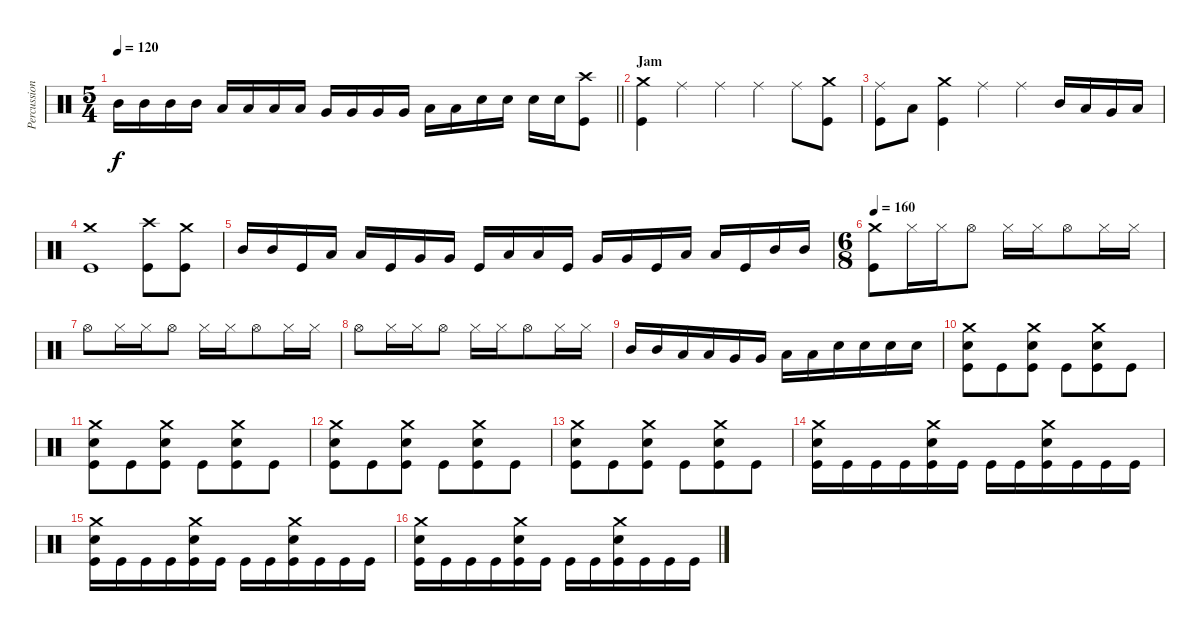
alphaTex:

\track ("Percussion" "Percussion") {instrument percussion}
\staff {score}
\articulation defaults
\ts (5 4)
\tempo 120
\clef neutral
\barLineRight lightlight
\ks c "Mid Tom (hit)".16{dy f} "Mid Tom (hit)".16 "Mid Tom (hit)".16 "Mid Tom (hit)".16 "Low Tom (hit)".16 "Low Tom (hit)".16 "Low Tom (hit)".16 "Low Tom (hit)".16 "Very Low Tom (hit)".16 "Very Low Tom (hit)".16 "Very Low Tom (hit)".16 "Very Low Tom (hit)".16 "Low Floor Tom (hit)".16 "Low Floor Tom (hit)".16 "Snare (hit) 2".16 "Snare (hit) 2".16 "Snare (hit) 2".16 "Snare (hit) 2".16
("Crash high (hit)" "Kick (hit)").8 |
\section ("" "Jam")
("Crash medium (hit)" "Kick (hit)").4 "Ride (middle)".4 "Ride (middle)".4 "Ride (middle)".4 "Ride (middle)".8 ("Crash medium (hit)" "Kick (hit)").8 |
("Ride (middle)" "Kick (hit)").8 "Low Floor Tom (hit)".8 ("Crash medium (hit)" "Kick (hit)").4 "Ride (middle)".4 "Ride (middle)".4 "Mid Tom (hit)".16 "Low Tom (hit)".16 "Very Low Tom (hit)".16 "Low Floor Tom (hit)".16 |
("Crash medium (hit)" "Kick (hit)").1 ("Crash high (hit)" "Kick (hit)").8 ("Crash medium (hit)" "Kick (hit)").8 |
"Mid Tom (hit)".16 "Mid Tom (hit)".16 "Kick (hit)".16 "Low Tom (hit)".16 "Low Tom (hit)".16 "Kick (hit)".16 "Very Low Tom (hit)".16 "Very Low Tom (hit)".16 "Kick (hit)".16 "Low Floor Tom (hit)".16 "Low Floor Tom (hit)".16 "Kick (hit)".16 "Very Low Tom (hit)".16 "Very Low Tom (hit)".16 "Kick (hit)".16 "Low Tom (hit)".16 "Low Tom (hit)".16 "Kick (hit)".16 "Mid Tom (hit)".16 "Mid Tom (hit)".16 |
\ts (6 8)
\tempo 160
("Crash medium (hit)" "Kick (hit)").8 "Hi-Hat (closed)".16 "Hi-Hat (closed)".16 "Hi-Hat (open)".8 "Hi-Hat (closed)".16 "Hi-Hat (closed)".16 "Hi-Hat (open)".8 "Hi-Hat (closed)".16 "Hi-Hat (closed)".16 |
"Hi-Hat (open)".8 "Hi-Hat (closed)".16 "Hi-Hat (closed)".16 "Hi-Hat (open)".8 "Hi-Hat (closed)".16 "Hi-Hat (closed)".16 "Hi-Hat (open)".8 "Hi-Hat (closed)".16 "Hi-Hat (closed)".16 |
"Hi-Hat (open)".8 "Hi-Hat (closed)".16 "Hi-Hat (closed)".16 "Hi-Hat (open)".8 "Hi-Hat (closed)".16 "Hi-Hat (closed)".16 "Hi-Hat (open)".8 "Hi-Hat (closed)".16 "Hi-Hat (closed)".16 |
"Mid Tom (hit)".16 "Mid Tom (hit)".16 "Low Tom (hit)".16 "Low Tom (hit)".16 "Very Low Tom (hit)".16 "Very Low Tom (hit)".16 "Low Floor Tom (hit)".16 "Low Floor Tom (hit)".16 "Snare (hit) 2".16 "Snare (hit) 2".16 "Snare (hit) 2".16 "Snare (hit) 2".16 |
("Crash medium (hit)" "Snare (hit) 2" "Kick (hit)").8 "Kick (hit)".8 ("Crash medium (hit)" "Snare (hit) 2" "Kick (hit)").8 "Kick (hit)".8 ("Crash medium (hit)" "Snare (hit) 2" "Kick (hit)").8 "Kick (hit)".8 |
("Crash medium (hit)" "Snare (hit) 2" "Kick (hit)").8 "Kick (hit)".8 ("Crash medium (hit)" "Snare (hit) 2" "Kick (hit)").8 "Kick (hit)".8 ("Crash medium (hit)" "Snare (hit) 2" "Kick (hit)").8 "Kick (hit)".8 |
("Crash medium (hit)" "Snare (hit) 2" "Kick (hit)").8 "Kick (hit)".8 ("Crash medium (hit)" "Snare (hit) 2" "Kick (hit)").8 "Kick (hit)".8 ("Crash medium (hit)" "Snare (hit) 2" "Kick (hit)").8 "Kick (hit)".8 |
("Crash medium (hit)" "Snare (hit) 2" "Kick (hit)").8 "Kick (hit)".8 ("Crash medium (hit)" "Snare (hit) 2" "Kick (hit)").8 "Kick (hit)".8 ("Crash medium (hit)" "Snare (hit) 2" "Kick (hit)").8 "Kick (hit)".8 |
("Crash medium (hit)" "Snare (hit) 2" "Kick (hit)").16 "Kick (hit)".16 "Kick (hit)".16 "Kick (hit)".16 ("Crash medium (hit)" "Snare (hit) 2" "Kick (hit)").16 "Kick (hit)".16 "Kick (hit)".16 "Kick (hit)".16 ("Crash medium (hit)" "Snare (hit) 2" "Kick (hit)").16 "Kick (hit)".16 "Kick (hit)".16 "Kick (hit)".16 |
("Crash medium (hit)" "Snare (hit) 2" "Kick (hit)").16 "Kick (hit)".16 "Kick (hit)".16 "Kick (hit)".16 ("Crash medium (hit)" "Snare (hit) 2" "Kick (hit)").16 "Kick (hit)".16 "Kick (hit)".16 "Kick (hit)".16 ("Crash medium (hit)" "Snare (hit) 2" "Kick (hit)").16 "Kick (hit)".16 "Kick (hit)".16 "Kick (hit)".16 |
("Crash medium (hit)" "Snare (hit) 2" "Kick (hit)").16 "Kick (hit)".16 "Kick (hit)".16 "Kick (hit)".16 ("Crash medium (hit)" "Snare (hit) 2" "Kick (hit)").16 "Kick (hit)".16 "Kick (hit)".16 "Kick (hit)".16 ("Crash medium (hit)" "Snare (hit) 2" "Kick (hit)").16 "Kick (hit)".16 "Kick (hit)".16 "Kick (hit)".16
